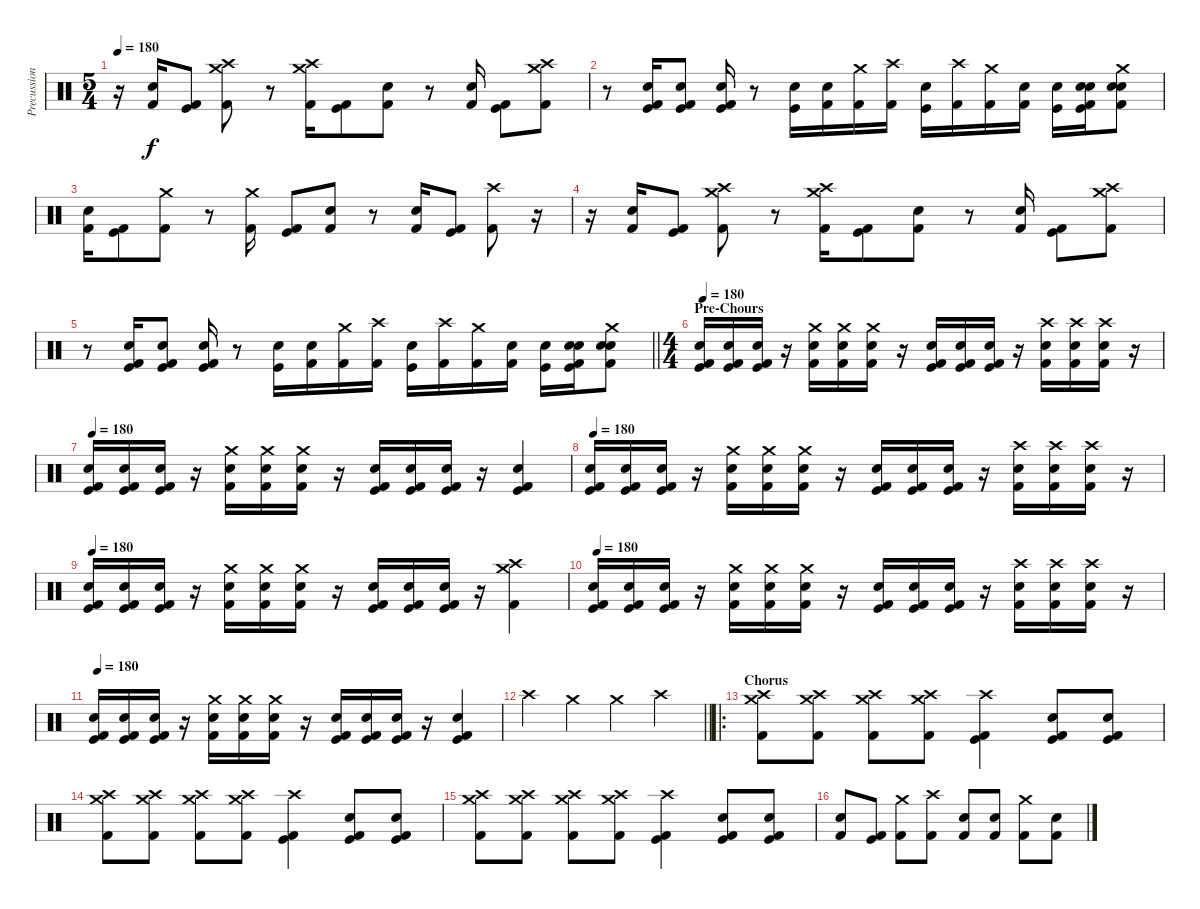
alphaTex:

\track ("Precussion" "Precussion") {instrument percussion}
\staff {score}
\articulation defaults
\ts (5 4)
\tempo 180
\clef neutral
\ks c
r.16{dy f} ("Electric Snare (hit)" "Kick (hit) 2").16 ("Kick (hit)" "Kick (hit) 2").8 ("Crash high (hit)" "Crash medium (hit)" "Kick (hit) 2").8 r.8 ("Crash high (hit)" "Crash medium (hit)" "Kick (hit) 2").16 ("Kick (hit)" "Kick (hit) 2").8 ("Electric Snare (hit)" "Kick (hit) 2").8 r.8 ("Electric Snare (hit)" "Kick (hit) 2").16 ("Kick (hit)" "Kick (hit) 2").8 ("Crash high (hit)" "Crash medium (hit)" "Kick (hit) 2").8 |
r.8 ("Kick (hit)" "Electric Snare (hit)" "Kick (hit) 2").16 ("Kick (hit)" "Electric Snare (hit)" "Kick (hit) 2").8 ("Kick (hit)" "Electric Snare (hit)" "Kick (hit) 2").16 r.8 ("Electric Snare (hit)" "Kick (hit)").16 ("Electric Snare (hit)" "Kick (hit) 2").16 ("Crash medium (hit)" "Kick (hit) 2").16 ("Crash high (hit)" "Kick (hit) 2").16 ("Electric Snare (hit)" "Kick (hit)").16 ("Crash high (hit)" "Kick (hit) 2").16 ("Crash medium (hit)" "Kick (hit) 2").16 ("Electric Snare (hit)" "Kick (hit) 2").16 ("Electric Snare (hit)" "Kick (hit)").16 ("Kick (hit)" "Electric Snare (hit)" "Electric Snare (hit)" "Kick (hit) 2").16 ("Crash medium (hit)" "Electric Snare (hit)" "Electric Snare (hit)" "Kick (hit) 2").8 |
("Electric Snare (hit)" "Kick (hit) 2").16 ("Kick (hit)" "Kick (hit) 2").8 ("Crash medium (hit)" "Kick (hit) 2").8 r.8 ("Crash medium (hit)" "Kick (hit) 2").16 ("Kick (hit)" "Kick (hit) 2").8 ("Electric Snare (hit)" "Kick (hit) 2").8 r.8 ("Electric Snare (hit)" "Kick (hit) 2").16 ("Kick (hit)" "Kick (hit) 2").8 ("Crash high (hit)" "Kick (hit) 2").8 r.16 |
r.16 ("Electric Snare (hit)" "Kick (hit) 2").16 ("Kick (hit)" "Kick (hit) 2").8 ("Crash high (hit)" "Crash medium (hit)" "Kick (hit) 2").8 r.8 ("Crash high (hit)" "Crash medium (hit)" "Kick (hit) 2").16 ("Kick (hit)" "Kick (hit) 2").8 ("Electric Snare (hit)" "Kick (hit) 2").8 r.8 ("Electric Snare (hit)" "Kick (hit) 2").16 ("Kick (hit)" "Kick (hit) 2").8 ("Crash high (hit)" "Crash medium (hit)" "Kick (hit) 2").8 |
\barLineRight lightlight
r.8 ("Kick (hit)" "Electric Snare (hit)" "Kick (hit) 2").16 ("Kick (hit)" "Electric Snare (hit)" "Kick (hit) 2").8 ("Kick (hit)" "Electric Snare (hit)" "Kick (hit) 2").16 r.8 ("Electric Snare (hit)" "Kick (hit)").16 ("Electric Snare (hit)" "Kick (hit) 2").16 ("Crash medium (hit)" "Kick (hit) 2").16 ("Crash high (hit)" "Kick (hit) 2").16 ("Electric Snare (hit)" "Kick (hit)").16 ("Crash high (hit)" "Kick (hit) 2").16 ("Crash medium (hit)" "Kick (hit) 2").16 ("Electric Snare (hit)" "Kick (hit) 2").16 ("Electric Snare (hit)" "Kick (hit)").16 ("Kick (hit)" "Electric Snare (hit)" "Electric Snare (hit)" "Kick (hit) 2").16 ("Crash medium (hit)" "Electric Snare (hit)" "Electric Snare (hit)" "Kick (hit) 2").8 |
\ts (4 4)
\section ("" "Pre-Chours")
\tempo 180
("Kick (hit)" "Electric Snare (hit)" "Kick (hit) 2").16 ("Kick (hit)" "Electric Snare (hit)" "Kick (hit) 2").16 ("Kick (hit)" "Electric Snare (hit)" "Kick (hit) 2").16 r.16 ("Crash medium (hit)" "Electric Snare (hit)" "Kick (hit) 2").16 ("Crash medium (hit)" "Electric Snare (hit)" "Kick (hit) 2").16 ("Crash medium (hit)" "Electric Snare (hit)" "Kick (hit) 2").16 r.16 ("Kick (hit)" "Electric Snare (hit)" "Kick (hit) 2").16 ("Kick (hit)" "Electric Snare (hit)" "Kick (hit) 2").16 ("Kick (hit)" "Electric Snare (hit)" "Kick (hit) 2").16 r.16 ("Crash high (hit)" "Electric Snare (hit)" "Kick (hit) 2").16 ("Crash high (hit)" "Electric Snare (hit)" "Kick (hit) 2").16 ("Crash high (hit)" "Electric Snare (hit)" "Kick (hit) 2").16 r.16 |
\tempo 180
("Kick (hit)" "Electric Snare (hit)" "Kick (hit) 2").16 ("Kick (hit)" "Electric Snare (hit)" "Kick (hit) 2").16 ("Kick (hit)" "Electric Snare (hit)" "Kick (hit) 2").16 r.16 ("Crash medium (hit)" "Electric Snare (hit)" "Kick (hit) 2").16 ("Crash medium (hit)" "Electric Snare (hit)" "Kick (hit) 2").16 ("Crash medium (hit)" "Electric Snare (hit)" "Kick (hit) 2").16 r.16 ("Kick (hit)" "Electric Snare (hit)" "Kick (hit) 2").16 ("Kick (hit)" "Electric Snare (hit)" "Kick (hit) 2").16 ("Kick (hit)" "Electric Snare (hit)" "Kick (hit) 2").16 r.16 ("Electric Snare (hit)" "Kick (hit)" "Kick (hit) 2").4 |
\tempo 180
("Kick (hit)" "Electric Snare (hit)" "Kick (hit) 2").16 ("Kick (hit)" "Electric Snare (hit)" "Kick (hit) 2").16 ("Kick (hit)" "Electric Snare (hit)" "Kick (hit) 2").16 r.16 ("Crash medium (hit)" "Electric Snare (hit)" "Kick (hit) 2").16 ("Crash medium (hit)" "Electric Snare (hit)" "Kick (hit) 2").16 ("Crash medium (hit)" "Electric Snare (hit)" "Kick (hit) 2").16 r.16 ("Kick (hit)" "Electric Snare (hit)" "Kick (hit) 2").16 ("Kick (hit)" "Electric Snare (hit)" "Kick (hit) 2").16 ("Kick (hit)" "Electric Snare (hit)" "Kick (hit) 2").16 r.16 ("Crash high (hit)" "Electric Snare (hit)" "Kick (hit) 2").16 ("Crash high (hit)" "Electric Snare (hit)" "Kick (hit) 2").16 ("Crash high (hit)" "Electric Snare (hit)" "Kick (hit) 2").16 r.16 |
\tempo 180
("Kick (hit)" "Electric Snare (hit)" "Kick (hit) 2").16 ("Kick (hit)" "Electric Snare (hit)" "Kick (hit) 2").16 ("Kick (hit)" "Electric Snare (hit)" "Kick (hit) 2").16 r.16 ("Crash medium (hit)" "Electric Snare (hit)" "Kick (hit) 2").16 ("Crash medium (hit)" "Electric Snare (hit)" "Kick (hit) 2").16 ("Crash medium (hit)" "Electric Snare (hit)" "Kick (hit) 2").16 r.16 ("Kick (hit)" "Electric Snare (hit)" "Kick (hit) 2").16 ("Kick (hit)" "Electric Snare (hit)" "Kick (hit) 2").16 ("Kick (hit)" "Electric Snare (hit)" "Kick (hit) 2").16 r.16 ("Crash medium (hit)" "Crash high (hit)" "Kick (hit) 2").4 |
\tempo 180
("Kick (hit)" "Electric Snare (hit)" "Kick (hit) 2").16 ("Kick (hit)" "Electric Snare (hit)" "Kick (hit) 2").16 ("Kick (hit)" "Electric Snare (hit)" "Kick (hit) 2").16 r.16 ("Crash medium (hit)" "Electric Snare (hit)" "Kick (hit) 2").16 ("Crash medium (hit)" "Electric Snare (hit)" "Kick (hit) 2").16 ("Crash medium (hit)" "Electric Snare (hit)" "Kick (hit) 2").16 r.16 ("Kick (hit)" "Electric Snare (hit)" "Kick (hit) 2").16 ("Kick (hit)" "Electric Snare (hit)" "Kick (hit) 2").16 ("Kick (hit)" "Electric Snare (hit)" "Kick (hit) 2").16 r.16 ("Crash high (hit)" "Electric Snare (hit)" "Kick (hit) 2").16 ("Crash high (hit)" "Electric Snare (hit)" "Kick (hit) 2").16 ("Crash high (hit)" "Electric Snare (hit)" "Kick (hit) 2").16 r.16 |
\tempo 180
("Kick (hit)" "Electric Snare (hit)" "Kick (hit) 2").16 ("Kick (hit)" "Electric Snare (hit)" "Kick (hit) 2").16 ("Kick (hit)" "Electric Snare (hit)" "Kick (hit) 2").16 r.16 ("Crash medium (hit)" "Electric Snare (hit)" "Kick (hit) 2").16 ("Crash medium (hit)" "Electric Snare (hit)" "Kick (hit) 2").16 ("Crash medium (hit)" "Electric Snare (hit)" "Kick (hit) 2").16 r.16 ("Kick (hit)" "Electric Snare (hit)" "Kick (hit) 2").16 ("Kick (hit)" "Electric Snare (hit)" "Kick (hit) 2").16 ("Kick (hit)" "Electric Snare (hit)" "Kick (hit) 2").16 r.16 ("Electric Snare (hit)" "Kick (hit)" "Kick (hit) 2").4 |
\barLineRight lightlight "Crash high (hit)".4 "Crash medium (hit)".4 "Crash medium (hit)".4 "Crash high (hit)".4
|
\ro
\section ("" "Chorus")
("Crash medium (hit)" "Crash high (hit)" "Kick (hit) 2").8 ("Crash medium (hit)" "Crash high (hit)" "Kick (hit) 2").8 ("Crash medium (hit)" "Crash high (hit)" "Kick (hit) 2").8 ("Crash medium (hit)" "Crash high (hit)" "Kick (hit) 2").8 ("Kick (hit)" "Crash high (hit)" "Kick (hit) 2").4 ("Electric Snare (hit)" "Kick (hit)" "Kick (hit) 2").8 ("Electric Snare (hit)" "Kick (hit)" "Kick (hit) 2").8 |
("Crash medium (hit)" "Crash high (hit)" "Kick (hit) 2").8 ("Crash medium (hit)" "Crash high (hit)" "Kick (hit) 2").8 ("Crash medium (hit)" "Crash high (hit)" "Kick (hit) 2").8 ("Crash medium (hit)" "Crash high (hit)" "Kick (hit) 2").8 ("Kick (hit)" "Crash high (hit)" "Kick (hit) 2").4 ("Electric Snare (hit)" "Kick (hit)" "Kick (hit) 2").8 ("Electric Snare (hit)" "Kick (hit)" "Kick (hit) 2").8 |
("Crash medium (hit)" "Crash high (hit)" "Kick (hit) 2").8 ("Crash medium (hit)" "Crash high (hit)" "Kick (hit) 2").8 ("Crash medium (hit)" "Crash high (hit)" "Kick (hit) 2").8 ("Crash medium (hit)" "Crash high (hit)" "Kick (hit) 2").8 ("Kick (hit)" "Crash high (hit)" "Kick (hit) 2").4 ("Electric Snare (hit)" "Kick (hit)" "Kick (hit) 2").8 ("Electric Snare (hit)" "Kick (hit)" "Kick (hit) 2").8 |
("Electric Snare (hit)" "Kick (hit) 2").8 ("Kick (hit)" "Kick (hit) 2").8 ("Crash medium (hit)" "Kick (hit) 2").8 ("Crash high (hit)" "Kick (hit) 2").8 ("Snare (hit) 2" "Kick (hit) 2").8 ("Electric Snare (hit)" "Kick (hit) 2").8 ("Crash medium (hit)" "Kick (hit) 2").8 ("Snare (hit) 2" "Kick (hit) 2").8
